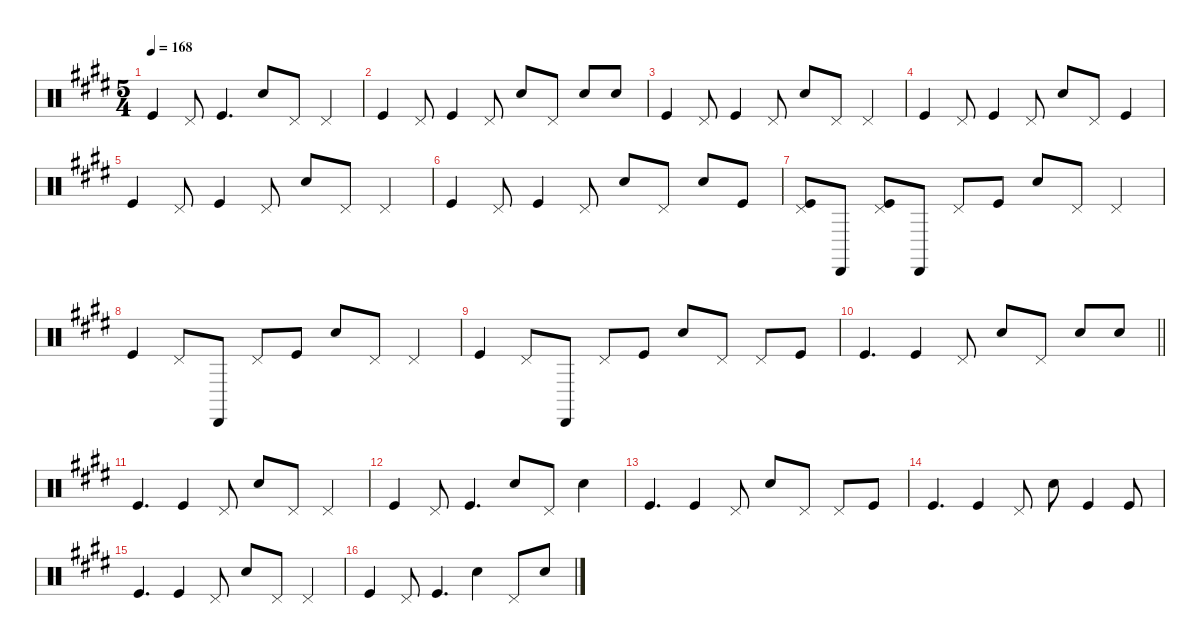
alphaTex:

\defaultSystemsLayout 4
\hideDynamics
\bracketExtendMode nobrackets
\singleTrackTrackNamePolicy hidden
\multiTrackTrackNamePolicy hidden
\firstSystemTrackNameMode fullname
\firstSystemTrackNameOrientation horizontal
\otherSystemsTrackNameOrientation horizontal
\track ("Percussion" "drm.") {instrument percussion}
\staff {score}
\articulation defaults
\ts (5 4)
\tempo 168
\clef neutral
\ks c#minor "Kick (hit)"{acc forcenatural}.4{dy f beam Up} "Pedal Hi-Hat (hit)"{acc forcenatural}.8{beam Up} "Kick (hit)"{acc forcenatural}.4{d beam Up} "Snare (hit) 2"{acc forcenatural}.8{beam Up} "Pedal Hi-Hat (hit)"{acc forcenatural}.8{beam Up} "Pedal Hi-Hat (hit)"{acc forcenatural}.4{beam Up}
|
"Kick (hit)"{acc forcenatural}.4{beam Up} "Pedal Hi-Hat (hit)"{acc forcenatural}.8{beam Up} "Kick (hit)"{acc forcenatural}.4{beam Up} "Pedal Hi-Hat (hit)"{acc forcenatural}.8{beam Up} "Snare (hit) 2"{acc forcenatural}.8{beam Up} "Pedal Hi-Hat (hit)"{acc forcenatural}.8{beam Up} "Snare (hit) 2"{acc forcenatural}.8{beam Up} "Snare (hit) 2"{acc forcenatural}.8{beam Up} |
"Kick (hit)"{acc forcenatural}.4{beam Up} "Pedal Hi-Hat (hit)"{acc forcenatural}.8{beam Up} "Kick (hit)"{acc forcenatural}.4{beam Up} "Pedal Hi-Hat (hit)"{acc forcenatural}.8{beam Up} "Snare (hit) 2"{acc forcenatural}.8{beam Up} "Pedal Hi-Hat (hit)"{acc forcenatural}.8{beam Up} "Pedal Hi-Hat (hit)"{acc forcenatural}.4{beam Up} |
"Kick (hit)"{acc forcenatural}.4{beam Up} "Pedal Hi-Hat (hit)"{acc forcenatural}.8{beam Up} "Kick (hit)"{acc forcenatural}.4{beam Up} "Pedal Hi-Hat (hit)"{acc forcenatural}.8{beam Up} "Snare (hit) 2"{acc forcenatural}.8{beam Up} "Pedal Hi-Hat (hit)"{acc forcenatural}.8{beam Up} "Kick (hit)"{acc forcenatural}.4{beam Up} |
"Kick (hit)"{acc forcenatural}.4{beam Up} "Pedal Hi-Hat (hit)"{acc forcenatural}.8{beam Up} "Kick (hit)"{acc forcenatural}.4{beam Up} "Pedal Hi-Hat (hit)"{acc forcenatural}.8{beam Up} "Snare (hit) 2"{acc forcenatural}.8{beam Up} "Pedal Hi-Hat (hit)"{acc forcenatural}.8{beam Up} "Pedal Hi-Hat (hit)"{acc forcenatural}.4{beam Up} |
"Kick (hit)"{acc forcenatural}.4{beam Up} "Pedal Hi-Hat (hit)"{acc forcenatural}.8{beam Up} "Kick (hit)"{acc forcenatural}.4{beam Up} "Pedal Hi-Hat (hit)"{acc forcenatural}.8{beam Up} "Snare (hit) 2"{acc forcenatural}.8{beam Up} "Pedal Hi-Hat (hit)"{acc forcenatural}.8{beam Up} "Snare (hit) 2"{acc forcenatural}.8{beam Up} "Kick (hit)"{acc forcenatural}.8{beam Up} |
("Kick (hit)"{acc forcenatural} "Pedal Hi-Hat (hit)"{acc forcenatural}).8{beam Up} "Cabasa (hit)"{acc forcenatural}.8{dy pp beam Up} ("Kick (hit)"{acc forcenatural} "Pedal Hi-Hat (hit)"{acc forcenatural}).8{dy f beam Up} "Cabasa (hit)"{acc forcenatural}.8{dy pp beam Up} "Pedal Hi-Hat (hit)"{acc forcenatural}.8{dy f beam Up} "Kick (hit)"{acc forcenatural}.8{beam Up} "Snare (hit) 2"{acc forcenatural}.8{beam Up} "Pedal Hi-Hat (hit)"{acc forcenatural}.8{beam Up} "Pedal Hi-Hat (hit)"{acc forcenatural}.4{beam Up} |
"Kick (hit)"{acc forcenatural}.4{beam Up} "Pedal Hi-Hat (hit)"{acc forcenatural}.8{beam Up} "Cabasa (hit)"{acc forcenatural}.8{dy pp beam Up} "Pedal Hi-Hat (hit)"{acc forcenatural}.8{dy f beam Up} "Kick (hit)"{acc forcenatural}.8{beam Up} "Snare (hit) 2"{acc forcenatural}.8{beam Up} "Pedal Hi-Hat (hit)"{acc forcenatural}.8{beam Up} "Pedal Hi-Hat (hit)"{acc forcenatural}.4{beam Up} |
"Kick (hit)"{acc forcenatural}.4{beam Up} "Pedal Hi-Hat (hit)"{acc forcenatural}.8{beam Up} "Cabasa (hit)"{acc forcenatural}.8{dy pp beam Up} "Pedal Hi-Hat (hit)"{acc forcenatural}.8{dy f beam Up} "Kick (hit)"{acc forcenatural}.8{beam Up} "Snare (hit) 2"{acc forcenatural}.8{beam Up} "Pedal Hi-Hat (hit)"{acc forcenatural}.8{beam Up} "Pedal Hi-Hat (hit)"{acc forcenatural}.8{beam Up} "Kick (hit)"{acc forcenatural}.8{beam Up} |
\barLineRight lightlight "Kick (hit)"{acc forcenatural}.4{d beam Up} "Kick (hit)"{acc forcenatural}.4{beam Up} "Pedal Hi-Hat (hit)"{acc forcenatural}.8{beam Up} "Snare (hit) 2"{acc forcenatural}.8{beam Up} "Pedal Hi-Hat (hit)"{acc forcenatural}.8{beam Up} "Snare (hit) 2"{acc forcenatural}.8{beam Up} "Snare (hit) 2"{acc forcenatural}.8{beam Up}
|
"Kick (hit)"{acc forcenatural}.4{d beam Up} "Kick (hit)"{acc forcenatural}.4{beam Up} "Pedal Hi-Hat (hit)"{acc forcenatural}.8{beam Up} "Snare (hit) 2"{acc forcenatural}.8{beam Up} "Pedal Hi-Hat (hit)"{acc forcenatural}.8{beam Up} "Pedal Hi-Hat (hit)"{acc forcenatural}.4{beam Up} |
"Kick (hit)"{acc forcenatural}.4{beam Up} "Pedal Hi-Hat (hit)"{acc forcenatural}.8{beam Up} "Kick (hit)"{acc forcenatural}.4{d beam Up} "Snare (hit) 2"{acc forcenatural}.8{beam Up} "Pedal Hi-Hat (hit)"{acc forcenatural}.8{beam Up} "Snare (hit) 2"{acc forcenatural}.4{beam Down} |
"Kick (hit)"{acc forcenatural}.4{d beam Up} "Kick (hit)"{acc forcenatural}.4{beam Up} "Pedal Hi-Hat (hit)"{acc forcenatural}.8{beam Up} "Snare (hit) 2"{acc forcenatural}.8{beam Up} "Pedal Hi-Hat (hit)"{acc forcenatural}.8{beam Up} "Pedal Hi-Hat (hit)"{acc forcenatural}.8{beam Up} "Kick (hit)"{acc forcenatural}.8{beam Up} |
"Kick (hit)"{acc forcenatural}.4{d beam Up} "Kick (hit)"{acc forcenatural}.4{beam Up} "Pedal Hi-Hat (hit)"{acc forcenatural}.8{beam Up} "Snare (hit) 2"{acc forcenatural}.8{beam Down} "Kick (hit)"{acc forcenatural}.4{beam Up} "Kick (hit)"{acc forcenatural}.8{beam Up} |
"Kick (hit)"{acc forcenatural}.4{d beam Up} "Kick (hit)"{acc forcenatural}.4{beam Up} "Pedal Hi-Hat (hit)"{acc forcenatural}.8{beam Up} "Snare (hit) 2"{acc forcenatural}.8{beam Up} "Pedal Hi-Hat (hit)"{acc forcenatural}.8{beam Up} "Pedal Hi-Hat (hit)"{acc forcenatural}.4{beam Up} |
"Kick (hit)"{acc forcenatural}.4{beam Up} "Pedal Hi-Hat (hit)"{acc forcenatural}.8{beam Up} "Kick (hit)"{acc forcenatural}.4{d beam Up} "Snare (hit) 2"{acc forcenatural}.4{beam Down} "Pedal Hi-Hat (hit)"{acc forcenatural}.8{beam Up} "Snare (hit) 2"{acc forcenatural}.8{beam Up}
